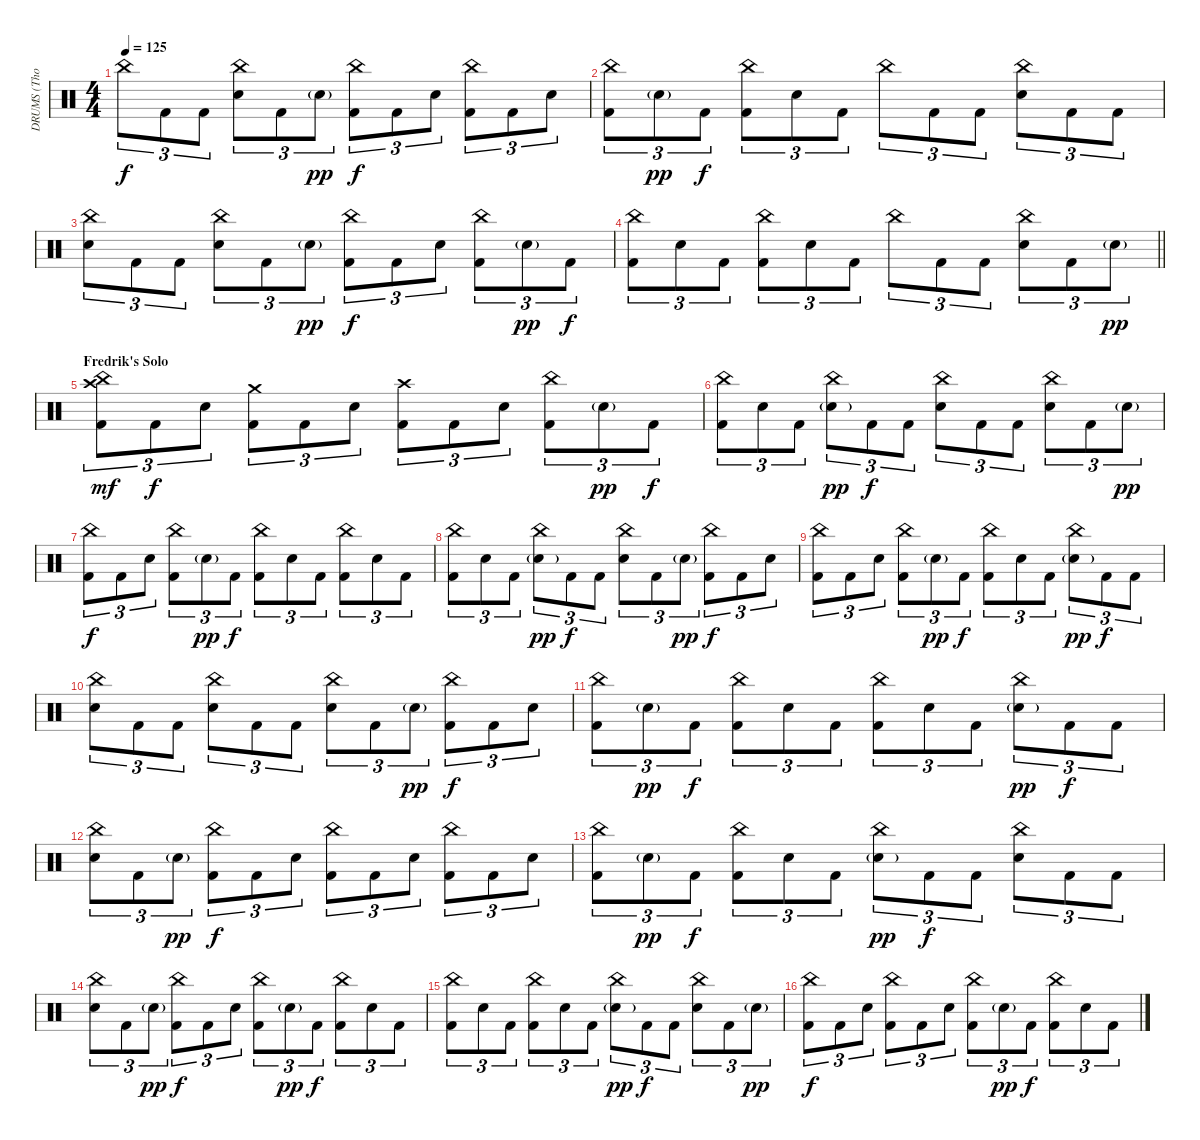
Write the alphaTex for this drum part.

\track ("DRUMS (Thomas Haake)" "DRUMS (Tho") {instrument percussion}
\staff {score}
\articulation defaults
\ts (4 4)
\tempo 125
\clef neutral
\ks c "China (hit)".8{tu (3 2) dy f} "Kick (hit) 2".8{tu (3 2)} "Kick (hit) 2".8{tu (3 2)}
("China (hit)" "Electric Snare (hit)").8{tu (3 2)} "Kick (hit) 2".8{tu (3 2)} "Electric Snare (hit)"{g}.8{tu (3 2) dy pp} ("China (hit)" "Kick (hit) 2").8{tu (3 2) dy f} "Kick (hit) 2".8{tu (3 2)} "Electric Snare (hit)".8{tu (3 2)} ("China (hit)" "Kick (hit) 2").8{tu (3 2)} "Kick (hit) 2".8{tu (3 2)} "Electric Snare (hit)".8{tu (3 2)} |
("China (hit)" "Kick (hit) 2").8{tu (3 2)} "Electric Snare (hit)"{g}.8{tu (3 2) dy pp} "Kick (hit) 2".8{tu (3 2) dy f} ("China (hit)" "Kick (hit) 2").8{tu (3 2)} "Electric Snare (hit)".8{tu (3 2)} "Kick (hit) 2".8{tu (3 2)} "China (hit)".8{tu (3 2)} "Kick (hit) 2".8{tu (3 2)} "Kick (hit) 2".8{tu (3 2)} ("China (hit)" "Electric Snare (hit)").8{tu (3 2)} "Kick (hit) 2".8{tu (3 2)} "Kick (hit) 2".8{tu (3 2)} |
("China (hit)" "Electric Snare (hit)").8{tu (3 2)} "Kick (hit) 2".8{tu (3 2)} "Kick (hit) 2".8{tu (3 2)} ("China (hit)" "Electric Snare (hit)").8{tu (3 2)} "Kick (hit) 2".8{tu (3 2)} "Electric Snare (hit)"{g}.8{tu (3 2) dy pp} ("China (hit)" "Kick (hit) 2").8{tu (3 2) dy f} "Kick (hit) 2".8{tu (3 2)} "Electric Snare (hit)".8{tu (3 2)} ("China (hit)" "Kick (hit) 2").8{tu (3 2)} "Electric Snare (hit)"{g}.8{tu (3 2) dy pp} "Kick (hit) 2".8{tu (3 2) dy f} |
\barLineRight lightlight
("China (hit)" "Kick (hit) 2").8{tu (3 2)} "Electric Snare (hit)".8{tu (3 2)} "Kick (hit) 2".8{tu (3 2)} ("China (hit)" "Kick (hit) 2").8{tu (3 2)} "Electric Snare (hit)".8{tu (3 2)} "Kick (hit) 2".8{tu (3 2)} "China (hit)".8{tu (3 2)} "Kick (hit) 2".8{tu (3 2)} "Kick (hit) 2".8{tu (3 2)} ("China (hit)" "Electric Snare (hit)").8{tu (3 2)} "Kick (hit) 2".8{tu (3 2)} "Electric Snare (hit)"{g}.8{tu (3 2) dy pp} |
\section ("" "Fredrik's Solo")
("Crash high (hit)" "China (hit)" "Kick (hit) 2").8{tu (3 2) dy mf} "Kick (hit) 2".8{tu (3 2) dy f} "Electric Snare (hit)".8{tu (3 2)} ("Crash medium (hit)" "Kick (hit) 2").8{tu (3 2)} "Kick (hit) 2".8{tu (3 2)} "Electric Snare (hit)".8{tu (3 2)} ("Crash high (hit)" "Kick (hit) 2").8{tu (3 2)} "Kick (hit) 2".8{tu (3 2)} "Electric Snare (hit)".8{tu (3 2)} ("China (hit)" "Kick (hit) 2").8{tu (3 2)} "Electric Snare (hit)"{g}.8{tu (3 2) dy pp} "Kick (hit) 2".8{tu (3 2) dy f} |
("China (hit)" "Kick (hit) 2").8{tu (3 2)} "Electric Snare (hit)".8{tu (3 2)} "Kick (hit) 2".8{tu (3 2)} ("China (hit)" "Electric Snare (hit)"{g}).8{tu (3 2) dy pp} "Kick (hit) 2".8{tu (3 2) dy f} "Kick (hit) 2".8{tu (3 2)} ("China (hit)" "Electric Snare (hit)").8{tu (3 2)} "Kick (hit) 2".8{tu (3 2)} "Kick (hit) 2".8{tu (3 2)} ("China (hit)" "Electric Snare (hit)").8{tu (3 2)} "Kick (hit) 2".8{tu (3 2)} "Electric Snare (hit)"{g}.8{tu (3 2) dy pp} |
("China (hit)" "Kick (hit) 2").8{tu (3 2) dy f} "Kick (hit) 2".8{tu (3 2)} "Electric Snare (hit)".8{tu (3 2)} ("China (hit)" "Kick (hit) 2").8{tu (3 2)} "Electric Snare (hit)"{g}.8{tu (3 2) dy pp} "Kick (hit) 2".8{tu (3 2) dy f} ("China (hit)" "Kick (hit) 2").8{tu (3 2)} "Electric Snare (hit)".8{tu (3 2)} "Kick (hit) 2".8{tu (3 2)} ("China (hit)" "Kick (hit) 2").8{tu (3 2)} "Electric Snare (hit)".8{tu (3 2)} "Kick (hit) 2".8{tu (3 2)} |
("China (hit)" "Kick (hit) 2").8{tu (3 2)} "Electric Snare (hit)".8{tu (3 2)} "Kick (hit) 2".8{tu (3 2)} ("China (hit)" "Electric Snare (hit)"{g}).8{tu (3 2) dy pp} "Kick (hit) 2".8{tu (3 2) dy f} "Kick (hit) 2".8{tu (3 2)} ("China (hit)" "Electric Snare (hit)").8{tu (3 2)} "Kick (hit) 2".8{tu (3 2)} "Electric Snare (hit)"{g}.8{tu (3 2) dy pp} ("China (hit)" "Kick (hit) 2").8{tu (3 2) dy f} "Kick (hit) 2".8{tu (3 2)} "Electric Snare (hit)".8{tu (3 2)} |
("China (hit)" "Kick (hit) 2").8{tu (3 2)} "Kick (hit) 2".8{tu (3 2)} "Electric Snare (hit)".8{tu (3 2)} ("China (hit)" "Kick (hit) 2").8{tu (3 2)} "Electric Snare (hit)"{g}.8{tu (3 2) dy pp} "Kick (hit) 2".8{tu (3 2) dy f} ("China (hit)" "Kick (hit) 2").8{tu (3 2)} "Electric Snare (hit)".8{tu (3 2)} "Kick (hit) 2".8{tu (3 2)} ("China (hit)" "Electric Snare (hit)"{g}).8{tu (3 2) dy pp} "Kick (hit) 2".8{tu (3 2) dy f} "Kick (hit) 2".8{tu (3 2)} |
("China (hit)" "Electric Snare (hit)").8{tu (3 2)} "Kick (hit) 2".8{tu (3 2)} "Kick (hit) 2".8{tu (3 2)} ("China (hit)" "Electric Snare (hit)").8{tu (3 2)} "Kick (hit) 2".8{tu (3 2)} "Kick (hit) 2".8{tu (3 2)} ("China (hit)" "Electric Snare (hit)").8{tu (3 2)} "Kick (hit) 2".8{tu (3 2)} "Electric Snare (hit)"{g}.8{tu (3 2) dy pp} ("China (hit)" "Kick (hit) 2").8{tu (3 2) dy f} "Kick (hit) 2".8{tu (3 2)} "Electric Snare (hit)".8{tu (3 2)} |
("China (hit)" "Kick (hit) 2").8{tu (3 2)} "Electric Snare (hit)"{g}.8{tu (3 2) dy pp} "Kick (hit) 2".8{tu (3 2) dy f} ("China (hit)" "Kick (hit) 2").8{tu (3 2)} "Electric Snare (hit)".8{tu (3 2)} "Kick (hit) 2".8{tu (3 2)} ("China (hit)" "Kick (hit) 2").8{tu (3 2)} "Electric Snare (hit)".8{tu (3 2)} "Kick (hit) 2".8{tu (3 2)} ("China (hit)" "Electric Snare (hit)"{g}).8{tu (3 2) dy pp} "Kick (hit) 2".8{tu (3 2) dy f} "Kick (hit) 2".8{tu (3 2)} |
("China (hit)" "Electric Snare (hit)").8{tu (3 2)} "Kick (hit) 2".8{tu (3 2)} "Electric Snare (hit)"{g}.8{tu (3 2) dy pp} ("China (hit)" "Kick (hit) 2").8{tu (3 2) dy f} "Kick (hit) 2".8{tu (3 2)} "Electric Snare (hit)".8{tu (3 2)} ("China (hit)" "Kick (hit) 2").8{tu (3 2)} "Kick (hit) 2".8{tu (3 2)} "Electric Snare (hit)".8{tu (3 2)} ("China (hit)" "Kick (hit) 2").8{tu (3 2)} "Kick (hit) 2".8{tu (3 2)} "Electric Snare (hit)".8{tu (3 2)} |
("China (hit)" "Kick (hit) 2").8{tu (3 2)} "Electric Snare (hit)"{g}.8{tu (3 2) dy pp} "Kick (hit) 2".8{tu (3 2) dy f} ("China (hit)" "Kick (hit) 2").8{tu (3 2)} "Electric Snare (hit)".8{tu (3 2)} "Kick (hit) 2".8{tu (3 2)} ("China (hit)" "Electric Snare (hit)"{g}).8{tu (3 2) dy pp} "Kick (hit) 2".8{tu (3 2) dy f} "Kick (hit) 2".8{tu (3 2)} ("China (hit)" "Electric Snare (hit)").8{tu (3 2)} "Kick (hit) 2".8{tu (3 2)} "Kick (hit) 2".8{tu (3 2)} |
("China (hit)" "Electric Snare (hit)").8{tu (3 2)} "Kick (hit) 2".8{tu (3 2)} "Electric Snare (hit)"{g}.8{tu (3 2) dy pp} ("China (hit)" "Kick (hit) 2").8{tu (3 2) dy f} "Kick (hit) 2".8{tu (3 2)} "Electric Snare (hit)".8{tu (3 2)} ("China (hit)" "Kick (hit) 2").8{tu (3 2)} "Electric Snare (hit)"{g}.8{tu (3 2) dy pp} "Kick (hit) 2".8{tu (3 2) dy f} ("China (hit)" "Kick (hit) 2").8{tu (3 2)} "Electric Snare (hit)".8{tu (3 2)} "Kick (hit) 2".8{tu (3 2)} |
("China (hit)" "Kick (hit) 2").8{tu (3 2)} "Electric Snare (hit)".8{tu (3 2)} "Kick (hit) 2".8{tu (3 2)} ("China (hit)" "Kick (hit) 2").8{tu (3 2)} "Electric Snare (hit)".8{tu (3 2)} "Kick (hit) 2".8{tu (3 2)} ("China (hit)" "Electric Snare (hit)"{g}).8{tu (3 2) dy pp} "Kick (hit) 2".8{tu (3 2) dy f} "Kick (hit) 2".8{tu (3 2)} ("China (hit)" "Electric Snare (hit)").8{tu (3 2)} "Kick (hit) 2".8{tu (3 2)} "Electric Snare (hit)"{g}.8{tu (3 2) dy pp} |
("China (hit)" "Kick (hit) 2").8{tu (3 2) dy f} "Kick (hit) 2".8{tu (3 2)} "Electric Snare (hit)".8{tu (3 2)} ("China (hit)" "Kick (hit) 2").8{tu (3 2)} "Kick (hit) 2".8{tu (3 2)} "Electric Snare (hit)".8{tu (3 2)} ("China (hit)" "Kick (hit) 2").8{tu (3 2)} "Electric Snare (hit)"{g}.8{tu (3 2) dy pp} "Kick (hit) 2".8{tu (3 2) dy f} ("China (hit)" "Kick (hit) 2").8{tu (3 2)} "Electric Snare (hit)".8{tu (3 2)} "Kick (hit) 2".8{tu (3 2)}
